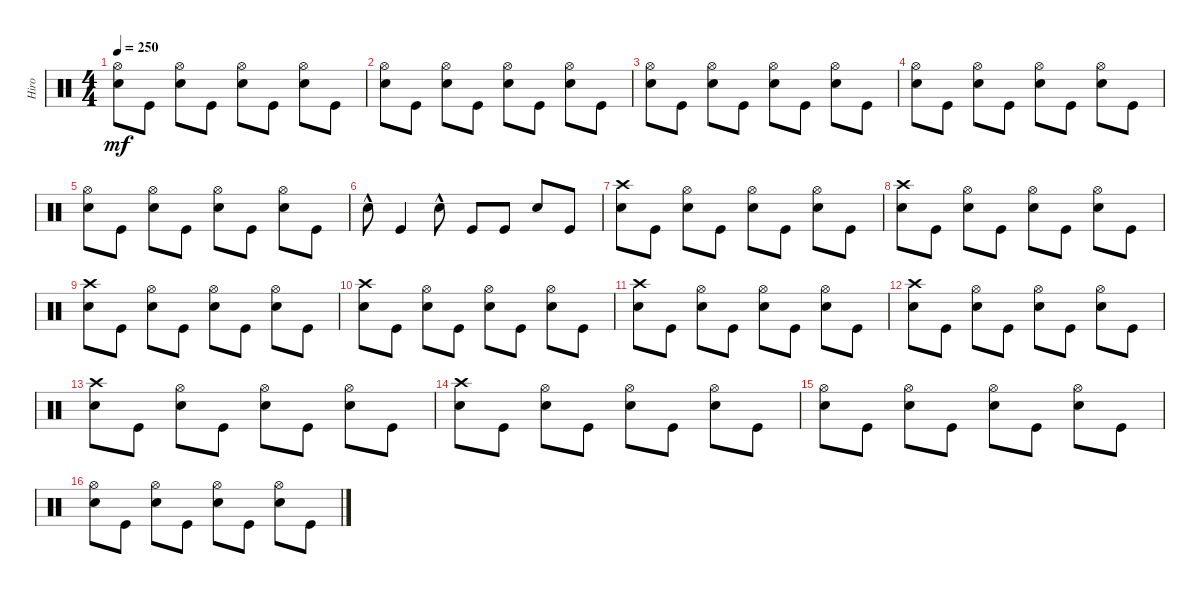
\track ("Hiro" "Hiro") {instrument percussion}
\staff {score}
\articulation defaults
\ts (4 4)
\tempo 250
\clef neutral
\ks c
("Electric Snare (hit)" "Hi-Hat (open)").8{dy mf} "Kick (hit)".8 ("Electric Snare (hit)" "Hi-Hat (open)").8 "Kick (hit)".8 ("Electric Snare (hit)" "Hi-Hat (open)").8 "Kick (hit)".8 ("Electric Snare (hit)" "Hi-Hat (open)").8 "Kick (hit)".8 |
("Electric Snare (hit)" "Hi-Hat (open)").8 "Kick (hit)".8 ("Electric Snare (hit)" "Hi-Hat (open)").8 "Kick (hit)".8 ("Electric Snare (hit)" "Hi-Hat (open)").8 "Kick (hit)".8 ("Electric Snare (hit)" "Hi-Hat (open)").8 "Kick (hit)".8 |
("Hi-Hat (open)" "Electric Snare (hit)").8 "Kick (hit)".8 ("Hi-Hat (open)" "Electric Snare (hit)").8 "Kick (hit)".8 ("Hi-Hat (open)" "Electric Snare (hit)").8 "Kick (hit)".8 ("Hi-Hat (open)" "Electric Snare (hit)").8 "Kick (hit)".8 |
("Hi-Hat (open)" "Electric Snare (hit)").8 "Kick (hit)".8 ("Hi-Hat (open)" "Electric Snare (hit)").8 "Kick (hit)".8 ("Hi-Hat (open)" "Electric Snare (hit)").8 "Kick (hit)".8 ("Hi-Hat (open)" "Electric Snare (hit)").8 "Kick (hit)".8 |
("Electric Snare (hit)" "Hi-Hat (open)").8 "Kick (hit)".8 ("Electric Snare (hit)" "Hi-Hat (open)").8 "Kick (hit)".8 ("Electric Snare (hit)" "Hi-Hat (open)").8 "Kick (hit)".8 ("Electric Snare (hit)" "Hi-Hat (open)").8 "Kick (hit)".8 |
"Electric Snare (hit)"{hac}.8 "Kick (hit)".4 "Electric Snare (hit)"{hac}.8 "Kick (hit)".8 "Kick (hit)".8 "Electric Snare (hit)".8 "Kick (hit)".8 |
("Electric Snare (hit)" "Crash high (hit)").8 "Kick (hit)".8 ("Electric Snare (hit)" "Hi-Hat (open)").8 "Kick (hit)".8 ("Electric Snare (hit)" "Hi-Hat (open)").8 "Kick (hit)".8 ("Electric Snare (hit)" "Hi-Hat (open)").8 "Kick (hit)".8 |
("Crash high (hit)" "Electric Snare (hit)").8 "Kick (hit)".8 ("Hi-Hat (open)" "Electric Snare (hit)").8 "Kick (hit)".8 ("Hi-Hat (open)" "Electric Snare (hit)").8 "Kick (hit)".8 ("Hi-Hat (open)" "Electric Snare (hit)").8 "Kick (hit)".8 |
("Crash high (hit)" "Electric Snare (hit)").8 "Kick (hit)".8 ("Hi-Hat (open)" "Electric Snare (hit)").8 "Kick (hit)".8 ("Hi-Hat (open)" "Electric Snare (hit)").8 "Kick (hit)".8 ("Hi-Hat (open)" "Electric Snare (hit)").8 "Kick (hit)".8 |
("Crash high (hit)" "Electric Snare (hit)").8 "Kick (hit)".8 ("Hi-Hat (open)" "Electric Snare (hit)").8 "Kick (hit)".8 ("Hi-Hat (open)" "Electric Snare (hit)").8 "Kick (hit)".8 ("Hi-Hat (open)" "Electric Snare (hit)").8 "Kick (hit)".8 |
("Crash high (hit)" "Electric Snare (hit)").8 "Kick (hit)".8 ("Hi-Hat (open)" "Electric Snare (hit)").8 "Kick (hit)".8 ("Hi-Hat (open)" "Electric Snare (hit)").8 "Kick (hit)".8 ("Hi-Hat (open)" "Electric Snare (hit)").8 "Kick (hit)".8 |
("Electric Snare (hit)" "Crash high (hit)").8 "Kick (hit)".8 ("Electric Snare (hit)" "Hi-Hat (open)").8 "Kick (hit)".8 ("Electric Snare (hit)" "Hi-Hat (open)").8 "Kick (hit)".8 ("Electric Snare (hit)" "Hi-Hat (open)").8 "Kick (hit)".8 |
("Electric Snare (hit)" "Crash high (hit)").8 "Kick (hit)".8 ("Electric Snare (hit)" "Hi-Hat (open)").8 "Kick (hit)".8 ("Electric Snare (hit)" "Hi-Hat (open)").8 "Kick (hit)".8 ("Electric Snare (hit)" "Hi-Hat (open)").8 "Kick (hit)".8 |
("Electric Snare (hit)" "Crash high (hit)").8 "Kick (hit)".8 ("Electric Snare (hit)" "Hi-Hat (open)").8 "Kick (hit)".8 ("Electric Snare (hit)" "Hi-Hat (open)").8 "Kick (hit)".8 ("Electric Snare (hit)" "Hi-Hat (open)").8 "Kick (hit)".8 |
("Electric Snare (hit)" "Hi-Hat (open)").8 "Kick (hit)".8 ("Electric Snare (hit)" "Hi-Hat (open)").8 "Kick (hit)".8 ("Electric Snare (hit)" "Hi-Hat (open)").8 "Kick (hit)".8 ("Electric Snare (hit)" "Hi-Hat (open)").8 "Kick (hit)".8 |
("Hi-Hat (open)" "Electric Snare (hit)").8 "Kick (hit)".8 ("Hi-Hat (open)" "Electric Snare (hit)").8 "Kick (hit)".8 ("Hi-Hat (open)" "Electric Snare (hit)").8 "Kick (hit)".8 ("Hi-Hat (open)" "Electric Snare (hit)").8 "Kick (hit)".8
